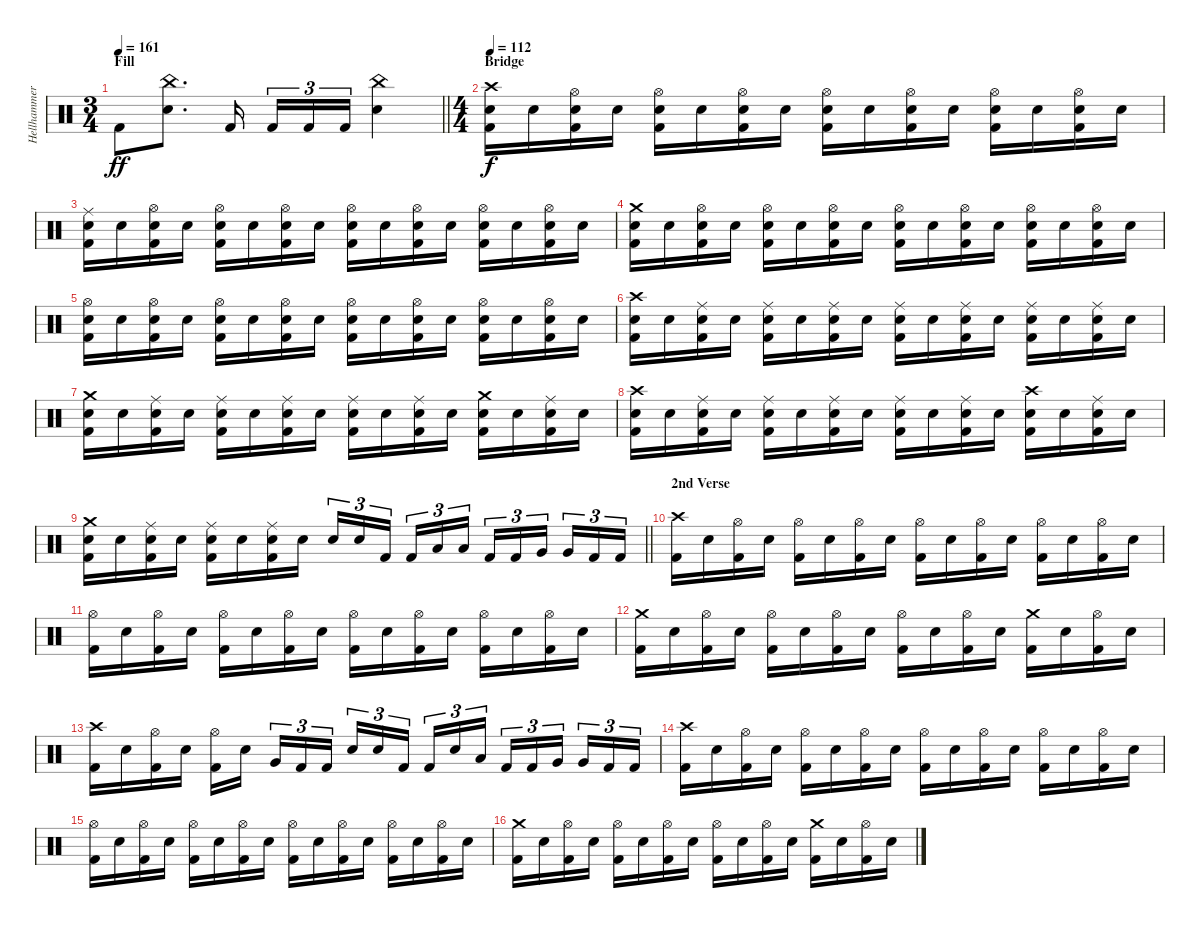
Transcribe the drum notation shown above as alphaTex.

\track ("Hellhammer" "Hellhammer") {instrument percussion}
\staff {score}
\articulation defaults
\ts (3 4)
\section ("" "Fill")
\tempo 161
\clef neutral
\barLineRight lightlight
\ks c "Kick (hit) 2".8{dy ff}
("China (hit)" "Snare (hit) 2").8{d} "Kick (hit) 2".16{beam splitsecondary} "Kick (hit) 2".16{tu (3 2)} "Kick (hit) 2".16{tu (3 2)} "Kick (hit) 2".16{tu (3 2)} ("China (hit)" "Snare (hit) 2").4 |
\ts (4 4)
\section ("" "Bridge")
\tempo 112
("Crash high (hit)" "Snare (hit) 2" "Kick (hit) 2").16{dy f} "Snare (hit) 2".16 ("Hi-Hat (open)" "Snare (hit) 2" "Kick (hit) 2").16 "Snare (hit) 2".16 ("Hi-Hat (open)" "Snare (hit) 2" "Kick (hit) 2").16 "Snare (hit) 2".16 ("Hi-Hat (open)" "Snare (hit) 2" "Kick (hit) 2").16 "Snare (hit) 2".16 ("Hi-Hat (open)" "Snare (hit) 2" "Kick (hit) 2").16 "Snare (hit) 2".16 ("Hi-Hat (open)" "Snare (hit) 2" "Kick (hit) 2").16 "Snare (hit) 2".16 ("Hi-Hat (open)" "Snare (hit) 2" "Kick (hit) 2").16 "Snare (hit) 2".16 ("Hi-Hat (open)" "Snare (hit) 2" "Kick (hit) 2").16 "Snare (hit) 2".16 |
("Ride (middle)" "Snare (hit) 2" "Kick (hit) 2").16 "Snare (hit) 2".16 ("Hi-Hat (open)" "Snare (hit) 2" "Kick (hit) 2").16 "Snare (hit) 2".16 ("Hi-Hat (open)" "Snare (hit) 2" "Kick (hit) 2").16 "Snare (hit) 2".16 ("Hi-Hat (open)" "Snare (hit) 2" "Kick (hit) 2").16 "Snare (hit) 2".16 ("Hi-Hat (open)" "Snare (hit) 2" "Kick (hit) 2").16 "Snare (hit) 2".16 ("Hi-Hat (open)" "Snare (hit) 2" "Kick (hit) 2").16 "Snare (hit) 2".16 ("Hi-Hat (open)" "Snare (hit) 2" "Kick (hit) 2").16 "Snare (hit) 2".16 ("Hi-Hat (open)" "Snare (hit) 2" "Kick (hit) 2").16 "Snare (hit) 2".16 |
("Crash medium (hit)" "Snare (hit) 2" "Kick (hit) 2").16 "Snare (hit) 2".16 ("Hi-Hat (open)" "Snare (hit) 2" "Kick (hit) 2").16 "Snare (hit) 2".16 ("Hi-Hat (open)" "Snare (hit) 2" "Kick (hit) 2").16 "Snare (hit) 2".16 ("Hi-Hat (open)" "Snare (hit) 2" "Kick (hit) 2").16 "Snare (hit) 2".16 ("Hi-Hat (open)" "Snare (hit) 2" "Kick (hit) 2").16 "Snare (hit) 2".16 ("Hi-Hat (open)" "Snare (hit) 2" "Kick (hit) 2").16 "Snare (hit) 2".16 ("Hi-Hat (open)" "Snare (hit) 2" "Kick (hit) 2").16 "Snare (hit) 2".16 ("Hi-Hat (open)" "Snare (hit) 2" "Kick (hit) 2").16 "Snare (hit) 2".16 |
("Hi-Hat (open)" "Snare (hit) 2" "Kick (hit) 2").16 "Snare (hit) 2".16 ("Hi-Hat (open)" "Snare (hit) 2" "Kick (hit) 2").16 "Snare (hit) 2".16 ("Hi-Hat (open)" "Snare (hit) 2" "Kick (hit) 2").16 "Snare (hit) 2".16 ("Hi-Hat (open)" "Snare (hit) 2" "Kick (hit) 2").16 "Snare (hit) 2".16 ("Hi-Hat (open)" "Snare (hit) 2" "Kick (hit) 2").16 "Snare (hit) 2".16 ("Hi-Hat (open)" "Snare (hit) 2" "Kick (hit) 2").16 "Snare (hit) 2".16 ("Hi-Hat (open)" "Snare (hit) 2" "Kick (hit) 2").16 "Snare (hit) 2".16 ("Hi-Hat (open)" "Snare (hit) 2" "Kick (hit) 2").16 "Snare (hit) 2".16 |
("Crash high (hit)" "Snare (hit) 2" "Kick (hit) 2").16 "Snare (hit) 2".16 ("Ride (middle)" "Snare (hit) 2" "Kick (hit) 2").16 "Snare (hit) 2".16 ("Ride (middle)" "Snare (hit) 2" "Kick (hit) 2").16 "Snare (hit) 2".16 ("Ride (middle)" "Snare (hit) 2" "Kick (hit) 2").16 "Snare (hit) 2".16 ("Ride (middle)" "Snare (hit) 2" "Kick (hit) 2").16 "Snare (hit) 2".16 ("Ride (middle)" "Snare (hit) 2" "Kick (hit) 2").16 "Snare (hit) 2".16 ("Ride (middle)" "Snare (hit) 2" "Kick (hit) 2").16 "Snare (hit) 2".16 ("Ride (middle)" "Snare (hit) 2" "Kick (hit) 2").16 "Snare (hit) 2".16 |
("Crash medium (hit)" "Snare (hit) 2" "Kick (hit) 2").16 "Snare (hit) 2".16 ("Ride (middle)" "Snare (hit) 2" "Kick (hit) 2").16 "Snare (hit) 2".16 ("Ride (middle)" "Snare (hit) 2" "Kick (hit) 2").16 "Snare (hit) 2".16 ("Ride (middle)" "Snare (hit) 2" "Kick (hit) 2").16 "Snare (hit) 2".16 ("Ride (middle)" "Snare (hit) 2" "Kick (hit) 2").16 "Snare (hit) 2".16 ("Ride (middle)" "Snare (hit) 2" "Kick (hit) 2").16 "Snare (hit) 2".16 ("Crash medium (hit)" "Snare (hit) 2" "Kick (hit) 2").16 "Snare (hit) 2".16 ("Ride (middle)" "Snare (hit) 2" "Kick (hit) 2").16 "Snare (hit) 2".16 |
("Crash high (hit)" "Snare (hit) 2" "Kick (hit) 2").16 "Snare (hit) 2".16 ("Ride (middle)" "Snare (hit) 2" "Kick (hit) 2").16 "Snare (hit) 2".16 ("Ride (middle)" "Snare (hit) 2" "Kick (hit) 2").16 "Snare (hit) 2".16 ("Ride (middle)" "Snare (hit) 2" "Kick (hit) 2").16 "Snare (hit) 2".16 ("Ride (middle)" "Snare (hit) 2" "Kick (hit) 2").16 "Snare (hit) 2".16 ("Ride (middle)" "Snare (hit) 2" "Kick (hit) 2").16 "Snare (hit) 2".16 ("Crash high (hit)" "Snare (hit) 2" "Kick (hit) 2").16 "Snare (hit) 2".16 ("Ride (middle)" "Snare (hit) 2" "Kick (hit) 2").16 "Snare (hit) 2".16 |
\barLineRight lightlight
("Crash medium (hit)" "Snare (hit) 2" "Kick (hit) 2").16 "Snare (hit) 2".16 ("Ride (middle)" "Snare (hit) 2" "Kick (hit) 2").16 "Snare (hit) 2".16 ("Ride (middle)" "Snare (hit) 2" "Kick (hit) 2").16 "Snare (hit) 2".16 ("Ride (middle)" "Snare (hit) 2" "Kick (hit) 2").16 "Snare (hit) 2".16 "Snare (hit) 2".16{tu (3 2)} "Snare (hit) 2".16{tu (3 2)} "Kick (hit) 2".16{tu (3 2) beam splitsecondary} "Kick (hit) 2".16{tu (3 2)} "Low Tom (hit)".16{tu (3 2)} "Low Tom (hit)".16{tu (3 2)} "Kick (hit) 2".16{tu (3 2)} "Kick (hit) 2".16{tu (3 2)} "Very Low Tom (hit)".16{tu (3 2) beam splitsecondary} "Very Low Tom (hit)".16{tu (3 2)} "Kick (hit) 2".16{tu (3 2)} "Kick (hit) 2".16{tu (3 2)} |
\section ("" "2nd Verse")
("Crash high (hit)" "Kick (hit) 2").16 "Snare (hit) 2".16 ("Hi-Hat (open)" "Kick (hit) 2").16 "Snare (hit) 2".16 ("Hi-Hat (open)" "Kick (hit) 2").16 "Snare (hit) 2".16 ("Hi-Hat (open)" "Kick (hit) 2").16 "Snare (hit) 2".16 ("Hi-Hat (open)" "Kick (hit) 2").16 "Snare (hit) 2".16 ("Hi-Hat (open)" "Kick (hit) 2").16 "Snare (hit) 2".16 ("Hi-Hat (open)" "Kick (hit) 2").16 "Snare (hit) 2".16 ("Hi-Hat (open)" "Kick (hit) 2").16 "Snare (hit) 2".16 |
("Hi-Hat (open)" "Kick (hit) 2").16 "Snare (hit) 2".16 ("Hi-Hat (open)" "Kick (hit) 2").16 "Snare (hit) 2".16 ("Hi-Hat (open)" "Kick (hit) 2").16 "Snare (hit) 2".16 ("Hi-Hat (open)" "Kick (hit) 2").16 "Snare (hit) 2".16 ("Hi-Hat (open)" "Kick (hit) 2").16 "Snare (hit) 2".16 ("Hi-Hat (open)" "Kick (hit) 2").16 "Snare (hit) 2".16 ("Hi-Hat (open)" "Kick (hit) 2").16 "Snare (hit) 2".16 ("Hi-Hat (open)" "Kick (hit) 2").16 "Snare (hit) 2".16 |
("Crash medium (hit)" "Kick (hit) 2").16 "Snare (hit) 2".16 ("Hi-Hat (open)" "Kick (hit) 2").16 "Snare (hit) 2".16 ("Hi-Hat (open)" "Kick (hit) 2").16 "Snare (hit) 2".16 ("Hi-Hat (open)" "Kick (hit) 2").16 "Snare (hit) 2".16 ("Hi-Hat (open)" "Kick (hit) 2").16 "Snare (hit) 2".16 ("Hi-Hat (open)" "Kick (hit) 2").16 "Snare (hit) 2".16 ("Crash medium (hit)" "Kick (hit) 2").16 "Snare (hit) 2".16 ("Hi-Hat (open)" "Kick (hit) 2").16 "Snare (hit) 2".16 |
("Crash high (hit)" "Kick (hit) 2").16 "Snare (hit) 2".16 ("Hi-Hat (open)" "Kick (hit) 2").16 "Snare (hit) 2".16 ("Hi-Hat (open)" "Kick (hit) 2").16 "Snare (hit) 2".16{beam splitsecondary} "Very Low Tom (hit)".16{tu (3 2)} "Kick (hit) 2".16{tu (3 2)} "Kick (hit) 2".16{tu (3 2)} "Snare (hit) 2".16{tu (3 2)} "Snare (hit) 2".16{tu (3 2)} "Kick (hit) 2".16{tu (3 2) beam splitsecondary} "Kick (hit) 2".16{tu (3 2)} "Snare (hit) 2".16{tu (3 2)} "Low Tom (hit)".16{tu (3 2)} "Kick (hit) 2".16{tu (3 2)} "Kick (hit) 2".16{tu (3 2)} "Very Low Tom (hit)".16{tu (3 2) beam splitsecondary} "Very Low Tom (hit)".16{tu (3 2)} "Kick (hit) 2".16{tu (3 2)} "Kick (hit) 2".16{tu (3 2)} |
("Crash high (hit)" "Kick (hit) 2").16 "Snare (hit) 2".16 ("Hi-Hat (open)" "Kick (hit) 2").16 "Snare (hit) 2".16 ("Hi-Hat (open)" "Kick (hit) 2").16 "Snare (hit) 2".16 ("Hi-Hat (open)" "Kick (hit) 2").16 "Snare (hit) 2".16 ("Hi-Hat (open)" "Kick (hit) 2").16 "Snare (hit) 2".16 ("Hi-Hat (open)" "Kick (hit) 2").16 "Snare (hit) 2".16 ("Hi-Hat (open)" "Kick (hit) 2").16 "Snare (hit) 2".16 ("Hi-Hat (open)" "Kick (hit) 2").16 "Snare (hit) 2".16 |
("Hi-Hat (open)" "Kick (hit) 2").16 "Snare (hit) 2".16 ("Hi-Hat (open)" "Kick (hit) 2").16 "Snare (hit) 2".16 ("Hi-Hat (open)" "Kick (hit) 2").16 "Snare (hit) 2".16 ("Hi-Hat (open)" "Kick (hit) 2").16 "Snare (hit) 2".16 ("Hi-Hat (open)" "Kick (hit) 2").16 "Snare (hit) 2".16 ("Hi-Hat (open)" "Kick (hit) 2").16 "Snare (hit) 2".16 ("Hi-Hat (open)" "Kick (hit) 2").16 "Snare (hit) 2".16 ("Hi-Hat (open)" "Kick (hit) 2").16 "Snare (hit) 2".16 |
("Crash medium (hit)" "Kick (hit) 2").16 "Snare (hit) 2".16 ("Hi-Hat (open)" "Kick (hit) 2").16 "Snare (hit) 2".16 ("Hi-Hat (open)" "Kick (hit) 2").16 "Snare (hit) 2".16 ("Hi-Hat (open)" "Kick (hit) 2").16 "Snare (hit) 2".16 ("Hi-Hat (open)" "Kick (hit) 2").16 "Snare (hit) 2".16 ("Hi-Hat (open)" "Kick (hit) 2").16 "Snare (hit) 2".16 ("Crash medium (hit)" "Kick (hit) 2").16 "Snare (hit) 2".16 ("Hi-Hat (open)" "Kick (hit) 2").16 "Snare (hit) 2".16
